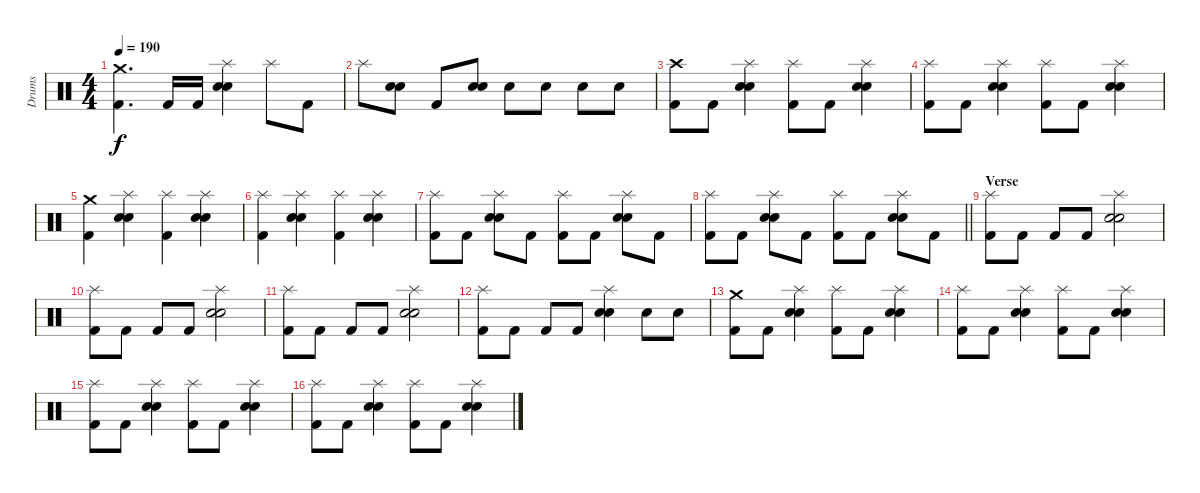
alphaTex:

\track ("Drums" "Drums") {instrument percussion}
\staff
\articulation defaults
\ts (4 4)
\tempo 190
\clef neutral
\ks c
("Crash medium (hit)" "Kick (hit) 2").4{d dy f} "Kick (hit) 2".16 "Kick (hit) 2".16 ("Splash (hit)" "Electric Snare (hit)" "Snare (hit) 2").4 "Splash (hit)".8 "Kick (hit) 2".8 |
"Splash (hit)".8 ("Electric Snare (hit)" "Snare (hit) 2").8 "Kick (hit) 2".8 ("Electric Snare (hit)" "Snare (hit) 2").8 "Electric Snare (hit)".8 "Electric Snare (hit)".8 "Electric Snare (hit)".8 "Electric Snare (hit)".8 |
("Crash high (hit)" "Kick (hit) 2").8 "Kick (hit) 2".8 ("Splash (hit)" "Electric Snare (hit)" "Snare (hit) 2").4 ("Splash (hit)" "Kick (hit) 2").8 "Kick (hit) 2".8 ("Splash (hit)" "Electric Snare (hit)" "Snare (hit) 2").4 |
("Splash (hit)" "Kick (hit) 2").8 "Kick (hit) 2".8 ("Splash (hit)" "Electric Snare (hit)" "Snare (hit) 2").4 ("Splash (hit)" "Kick (hit) 2").8 "Kick (hit) 2".8 ("Splash (hit)" "Electric Snare (hit)" "Snare (hit) 2").4 |
("Crash medium (hit)" "Kick (hit) 2").4 ("Splash (hit)" "Electric Snare (hit)" "Snare (hit) 2").4 ("Splash (hit)" "Kick (hit) 2").4 ("Splash (hit)" "Electric Snare (hit)" "Snare (hit) 2").4 |
("Splash (hit)" "Kick (hit) 2").4 ("Splash (hit)" "Electric Snare (hit)" "Snare (hit) 2").4 ("Splash (hit)" "Kick (hit) 2").4 ("Splash (hit)" "Electric Snare (hit)" "Snare (hit) 2").4 |
("Splash (hit)" "Kick (hit) 2").8 "Kick (hit) 2".8 ("Splash (hit)" "Electric Snare (hit)" "Snare (hit) 2").8 "Kick (hit) 2".8 ("Splash (hit)" "Kick (hit) 2").8 "Kick (hit) 2".8 ("Splash (hit)" "Electric Snare (hit)" "Snare (hit) 2").8 "Kick (hit) 2".8 |
\barLineRight lightlight
("Splash (hit)" "Kick (hit) 2").8 "Kick (hit) 2".8 ("Splash (hit)" "Electric Snare (hit)" "Snare (hit) 2").8 "Kick (hit) 2".8 ("Splash (hit)" "Kick (hit) 2").8 "Kick (hit) 2".8 ("Splash (hit)" "Electric Snare (hit)" "Snare (hit) 2").8 "Kick (hit) 2".8 |
\section ("" "Verse")
("Splash (hit)" "Kick (hit) 2").8 "Kick (hit) 2".8 "Kick (hit) 2".8 "Kick (hit) 2".8 ("Splash (hit)" "Electric Snare (hit)" "Snare (hit) 2").2 |
("Splash (hit)" "Kick (hit) 2").8 "Kick (hit) 2".8 "Kick (hit) 2".8 "Kick (hit) 2".8 ("Splash (hit)" "Electric Snare (hit)" "Snare (hit) 2").2 |
("Splash (hit)" "Kick (hit) 2").8 "Kick (hit) 2".8 "Kick (hit) 2".8 "Kick (hit) 2".8 ("Splash (hit)" "Electric Snare (hit)" "Snare (hit) 2").2 |
("Splash (hit)" "Kick (hit) 2").8 "Kick (hit) 2".8 "Kick (hit) 2".8 "Kick (hit) 2".8 ("Splash (hit)" "Electric Snare (hit)" "Snare (hit) 2").4 "Electric Snare (hit)".8 "Electric Snare (hit)".8 |
("Crash medium (hit)" "Kick (hit) 2").8 "Kick (hit) 2".8 ("Splash (hit)" "Electric Snare (hit)" "Snare (hit) 2").4 ("Splash (hit)" "Kick (hit) 2").8 "Kick (hit) 2".8 ("Splash (hit)" "Electric Snare (hit)" "Snare (hit) 2").4 |
("Splash (hit)" "Kick (hit) 2").8 "Kick (hit) 2".8 ("Splash (hit)" "Electric Snare (hit)" "Snare (hit) 2").4 ("Splash (hit)" "Kick (hit) 2").8 "Kick (hit) 2".8 ("Splash (hit)" "Electric Snare (hit)" "Snare (hit) 2").4 |
("Splash (hit)" "Kick (hit) 2").8 "Kick (hit) 2".8 ("Splash (hit)" "Electric Snare (hit)" "Snare (hit) 2").4 ("Splash (hit)" "Kick (hit) 2").8 "Kick (hit) 2".8 ("Splash (hit)" "Electric Snare (hit)" "Snare (hit) 2").4 |
("Splash (hit)" "Kick (hit) 2").8 "Kick (hit) 2".8 ("Splash (hit)" "Electric Snare (hit)" "Snare (hit) 2").4 ("Splash (hit)" "Kick (hit) 2").8 "Kick (hit) 2".8 ("Splash (hit)" "Electric Snare (hit)" "Snare (hit) 2").4
